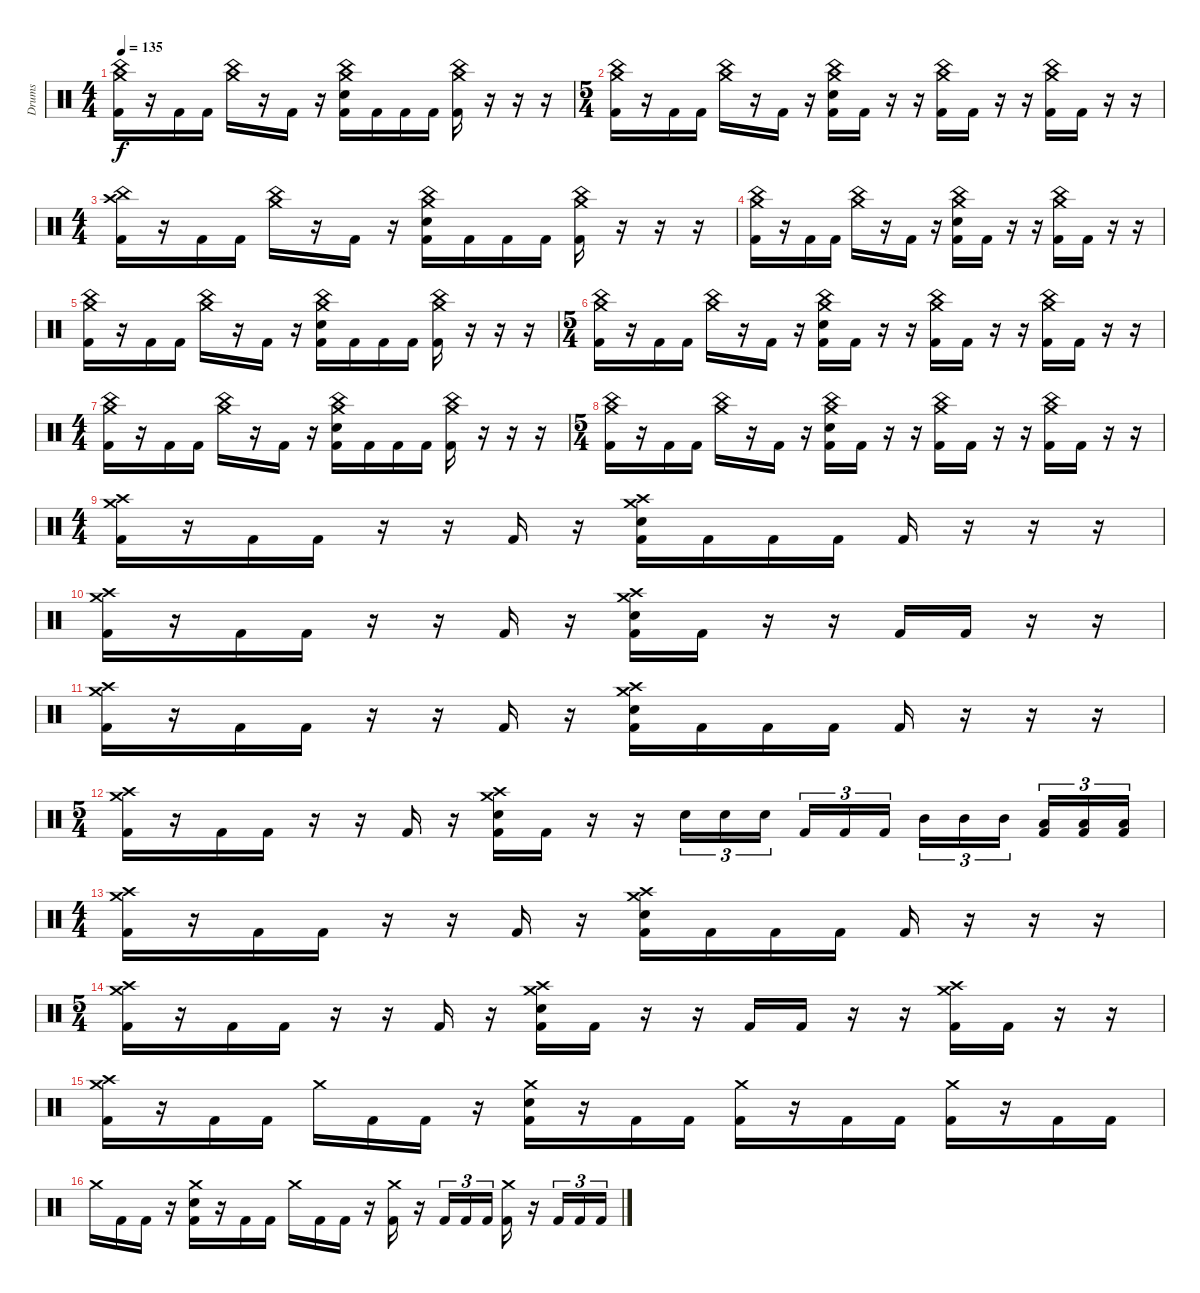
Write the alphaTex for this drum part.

\track ("Drums" "Drums") {instrument percussion}
\staff {score}
\articulation defaults
\ts (4 4)
\tempo 135
\clef neutral
\ks c
("Crash medium (hit)" "China (hit)" "Kick (hit) 2").16{dy f} r.16 "Kick (hit) 2".16 "Kick (hit) 2".16 ("Crash medium (hit)" "China (hit)").16 r.16 "Kick (hit) 2".16 r.16 ("Crash medium (hit)" "China (hit)" "Electric Snare (hit)" "Kick (hit) 2").16 "Kick (hit) 2".16 "Kick (hit) 2".16 "Kick (hit) 2".16 ("Crash medium (hit)" "China (hit)" "Kick (hit) 2").16 r.16 r.16 r.16 |
\ts (5 4)
("Crash medium (hit)" "China (hit)" "Kick (hit) 2").16 r.16 "Kick (hit) 2".16 "Kick (hit) 2".16 ("Crash medium (hit)" "China (hit)").16 r.16 "Kick (hit) 2".16 r.16 ("Crash medium (hit)" "China (hit)" "Electric Snare (hit)" "Kick (hit) 2").16 "Kick (hit) 2".16 r.16 r.16 ("Crash medium (hit)" "China (hit)" "Kick (hit) 2").16 "Kick (hit) 2".16 r.16 r.16 ("Crash medium (hit)" "China (hit)" "Kick (hit) 2").16 "Kick (hit) 2".16 r.16 r.16 |
\ts (4 4)
("Crash high (hit)" "China (hit)" "Kick (hit) 2").16 r.16 "Kick (hit) 2".16 "Kick (hit) 2".16 ("Crash medium (hit)" "China (hit)").16 r.16 "Kick (hit) 2".16 r.16 ("Crash medium (hit)" "China (hit)" "Electric Snare (hit)" "Kick (hit) 2").16 "Kick (hit) 2".16 "Kick (hit) 2".16 "Kick (hit) 2".16 ("Crash medium (hit)" "China (hit)" "Kick (hit) 2").16 r.16 r.16 r.16 |
("Crash medium (hit)" "China (hit)" "Kick (hit) 2").16 r.16 "Kick (hit) 2".16 "Kick (hit) 2".16 ("Crash medium (hit)" "China (hit)").16 r.16 "Kick (hit) 2".16 r.16 ("Crash medium (hit)" "China (hit)" "Electric Snare (hit)" "Kick (hit) 2").16 "Kick (hit) 2".16 r.16 r.16 ("Crash medium (hit)" "China (hit)" "Kick (hit) 2").16 "Kick (hit) 2".16 r.16 r.16 |
("Crash medium (hit)" "China (hit)" "Kick (hit) 2").16 r.16 "Kick (hit) 2".16 "Kick (hit) 2".16 ("Crash medium (hit)" "China (hit)").16 r.16 "Kick (hit) 2".16 r.16 ("Crash medium (hit)" "China (hit)" "Electric Snare (hit)" "Kick (hit) 2").16 "Kick (hit) 2".16 "Kick (hit) 2".16 "Kick (hit) 2".16 ("Crash medium (hit)" "China (hit)" "Kick (hit) 2").16 r.16 r.16 r.16 |
\ts (5 4)
("Crash medium (hit)" "China (hit)" "Kick (hit) 2").16 r.16 "Kick (hit) 2".16 "Kick (hit) 2".16 ("Crash medium (hit)" "China (hit)").16 r.16 "Kick (hit) 2".16 r.16 ("Crash medium (hit)" "China (hit)" "Electric Snare (hit)" "Kick (hit) 2").16 "Kick (hit) 2".16 r.16 r.16 ("Crash medium (hit)" "China (hit)" "Kick (hit) 2").16 "Kick (hit) 2".16 r.16 r.16 ("Crash medium (hit)" "China (hit)" "Kick (hit) 2").16 "Kick (hit) 2".16 r.16 r.16 |
\ts (4 4)
("Crash medium (hit)" "China (hit)" "Kick (hit) 2").16 r.16 "Kick (hit) 2".16 "Kick (hit) 2".16 ("Crash medium (hit)" "China (hit)").16 r.16 "Kick (hit) 2".16 r.16 ("Crash medium (hit)" "China (hit)" "Electric Snare (hit)" "Kick (hit) 2").16 "Kick (hit) 2".16 "Kick (hit) 2".16 "Kick (hit) 2".16 ("Crash medium (hit)" "China (hit)" "Kick (hit) 2").16 r.16 r.16 r.16 |
\ts (5 4)
("Crash medium (hit)" "China (hit)" "Kick (hit) 2").16 r.16 "Kick (hit) 2".16 "Kick (hit) 2".16 ("Crash medium (hit)" "China (hit)").16 r.16 "Kick (hit) 2".16 r.16 ("Crash medium (hit)" "China (hit)" "Electric Snare (hit)" "Kick (hit) 2").16 "Kick (hit) 2".16 r.16 r.16 ("Crash medium (hit)" "China (hit)" "Kick (hit) 2").16 "Kick (hit) 2".16 r.16 r.16 ("Crash medium (hit)" "China (hit)" "Kick (hit) 2").16 "Kick (hit) 2".16 r.16 r.16 |
\ts (4 4)
("Crash medium (hit)" "Crash high (hit)" "Kick (hit) 2").16 r.16 "Kick (hit) 2".16 "Kick (hit) 2".16 r.16 r.16 "Kick (hit) 2".16 r.16 ("Crash medium (hit)" "Crash high (hit)" "Electric Snare (hit)" "Kick (hit) 2").16 "Kick (hit) 2".16 "Kick (hit) 2".16 "Kick (hit) 2".16 "Kick (hit) 2".16 r.16 r.16 r.16 |
("Crash medium (hit)" "Crash high (hit)" "Kick (hit) 2").16 r.16 "Kick (hit) 2".16 "Kick (hit) 2".16 r.16 r.16 "Kick (hit) 2".16 r.16 ("Crash medium (hit)" "Crash high (hit)" "Electric Snare (hit)" "Kick (hit) 2").16 "Kick (hit) 2".16 r.16 r.16 "Kick (hit) 2".16 "Kick (hit) 2".16 r.16 r.16 |
("Crash medium (hit)" "Crash high (hit)" "Kick (hit) 2").16 r.16 "Kick (hit) 2".16 "Kick (hit) 2".16 r.16 r.16 "Kick (hit) 2".16 r.16 ("Crash medium (hit)" "Crash high (hit)" "Electric Snare (hit)" "Kick (hit) 2").16 "Kick (hit) 2".16 "Kick (hit) 2".16 "Kick (hit) 2".16 "Kick (hit) 2".16 r.16 r.16 r.16 |
\ts (5 4)
("Crash medium (hit)" "Crash high (hit)" "Kick (hit) 2").16 r.16 "Kick (hit) 2".16 "Kick (hit) 2".16 r.16 r.16 "Kick (hit) 2".16 r.16 ("Crash medium (hit)" "Crash high (hit)" "Electric Snare (hit)" "Kick (hit) 2").16 "Kick (hit) 2".16 r.16 r.16 "Electric Snare (hit)".16{tu (3 2)} "Electric Snare (hit)".16{tu (3 2)} "Electric Snare (hit)".16{tu (3 2) beam splitsecondary} "Kick (hit) 2".16{tu (3 2)} "Kick (hit) 2".16{tu (3 2)} "Kick (hit) 2".16{tu (3 2)} "Mid Tom (hit)".16{tu (3 2)} "Mid Tom (hit)".16{tu (3 2)} "Mid Tom (hit)".16{tu (3 2) beam splitsecondary} ("Low Tom (hit)" "Kick (hit) 2").16{tu (3 2)} ("Low Tom (hit)" "Kick (hit) 2").16{tu (3 2)} ("Low Tom (hit)" "Kick (hit) 2").16{tu (3 2)} |
\ts (4 4)
("Crash medium (hit)" "Crash high (hit)" "Kick (hit) 2").16 r.16 "Kick (hit) 2".16 "Kick (hit) 2".16 r.16 r.16 "Kick (hit) 2".16 r.16 ("Crash medium (hit)" "Crash high (hit)" "Electric Snare (hit)" "Kick (hit) 2").16 "Kick (hit) 2".16 "Kick (hit) 2".16 "Kick (hit) 2".16 "Kick (hit) 2".16 r.16 r.16 r.16 |
\ts (5 4)
("Crash medium (hit)" "Crash high (hit)" "Kick (hit) 2").16 r.16 "Kick (hit) 2".16 "Kick (hit) 2".16 r.16 r.16 "Kick (hit) 2".16 r.16 ("Crash medium (hit)" "Crash high (hit)" "Electric Snare (hit)" "Kick (hit) 2").16 "Kick (hit) 2".16 r.16 r.16 "Kick (hit) 2".16 "Kick (hit) 2".16 r.16 r.16 ("Crash medium (hit)" "Crash high (hit)" "Kick (hit) 2").16 "Kick (hit) 2".16 r.16 r.16 |
("Crash high (hit)" "Crash medium (hit)" "Kick (hit) 2").16 r.16 "Kick (hit) 2".16 "Kick (hit) 2".16 "Crash medium (hit)".16 "Kick (hit) 2".16 "Kick (hit) 2".16 r.16 ("Crash medium (hit)" "Electric Snare (hit)" "Kick (hit) 2").16 r.16 "Kick (hit) 2".16 "Kick (hit) 2".16 ("Crash medium (hit)" "Kick (hit) 2").16 r.16 "Kick (hit) 2".16 "Kick (hit) 2".16 ("Crash medium (hit)" "Kick (hit) 2").16 r.16 "Kick (hit) 2".16 "Kick (hit) 2".16 |
"Crash medium (hit)".16 "Kick (hit) 2".16 "Kick (hit) 2".16 r.16 ("Crash medium (hit)" "Electric Snare (hit)" "Kick (hit) 2").16 r.16 "Kick (hit) 2".16 "Kick (hit) 2".16 "Crash medium (hit)".16 "Kick (hit) 2".16 "Kick (hit) 2".16 r.16 ("Crash medium (hit)" "Kick (hit) 2").16 r.16 "Kick (hit) 2".16{tu (3 2)} "Kick (hit) 2".16{tu (3 2)} "Kick (hit) 2".16{tu (3 2)} ("Crash medium (hit)" "Kick (hit) 2").16 r.16 "Kick (hit) 2".16{tu (3 2)} "Kick (hit) 2".16{tu (3 2)} "Kick (hit) 2".16{tu (3 2)}
